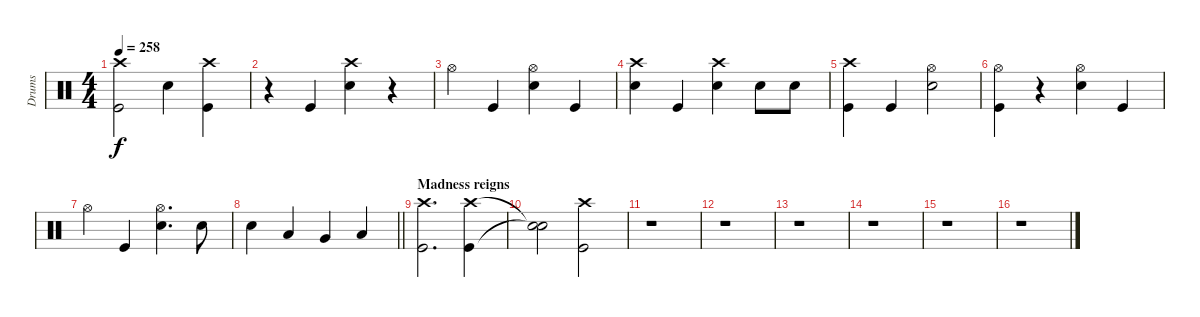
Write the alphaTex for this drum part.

\track ("Drums" "Drums") {instrument percussion}
\staff {score}
\articulation defaults
\ts (4 4)
\tempo 258
\clef neutral
\ks c
("Crash high (hit)" "Kick (hit)").2{dy f} "Electric Snare (hit)".4 ("Crash high (hit)" "Kick (hit)").4 |
r.4 "Kick (hit)".4 ("Crash high (hit)" "Electric Snare (hit)").4 r.4 |
"Hi-Hat (open)".4 "Kick (hit)".4 ("Hi-Hat (open)" "Electric Snare (hit)").4 "Kick (hit)".4 |
("Crash high (hit)" "Electric Snare (hit)").4 "Kick (hit)".4 ("Crash high (hit)" "Electric Snare (hit)").4 "Electric Snare (hit)".8 "Electric Snare (hit)".8 |
("Crash high (hit)" "Kick (hit)").4 "Kick (hit)".4 ("Hi-Hat (open)" "Electric Snare (hit)").2 |
("Hi-Hat (open)" "Kick (hit)").4 r.4 ("Hi-Hat (open)" "Electric Snare (hit)").4 "Kick (hit)".4 |
"Hi-Hat (open)".4 "Kick (hit)".4 ("Hi-Hat (open)" "Electric Snare (hit)").4{d} "Electric Snare (hit)".8 |
\barLineRight lightlight "Electric Snare (hit)".4 "Low Tom (hit)".4 "Very Low Tom (hit)".4 "Low Floor Tom (hit)".4
|
\section ("" "Madness reigns")
("Crash high (hit)" "Kick (hit)").2{d} ("Crash high (hit)" "Kick (hit)").4 |
("Snare (hit)"{t} "Snare (hit)"{t}).2 ("Crash high (hit)" "Kick (hit)").2 |
r.1 |
r.1 |
r.1 |
r.1 |
r.1 |
r.1
